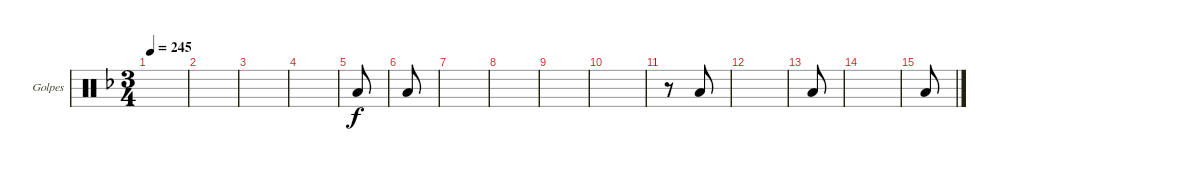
\defaultSystemsLayout 4
\bracketExtendMode groupsimilarinstruments
\firstSystemTrackNameOrientation horizontal
\otherSystemsTrackNameOrientation horizontal
\track ("Golpes" "Golpes") {instrument percussion}
\staff {score}
\articulation defaults
\ts (3 4)
\tempo 245
\clef neutral
\ks f
|
|
|
|
"Low Tom (hit)".8 |
"Low Tom (hit)".8 |
|
|
|
|
r.8 "Low Tom (hit)".8 |
|
"Low Tom (hit)".8 |
|
"Low Tom (hit)".8
